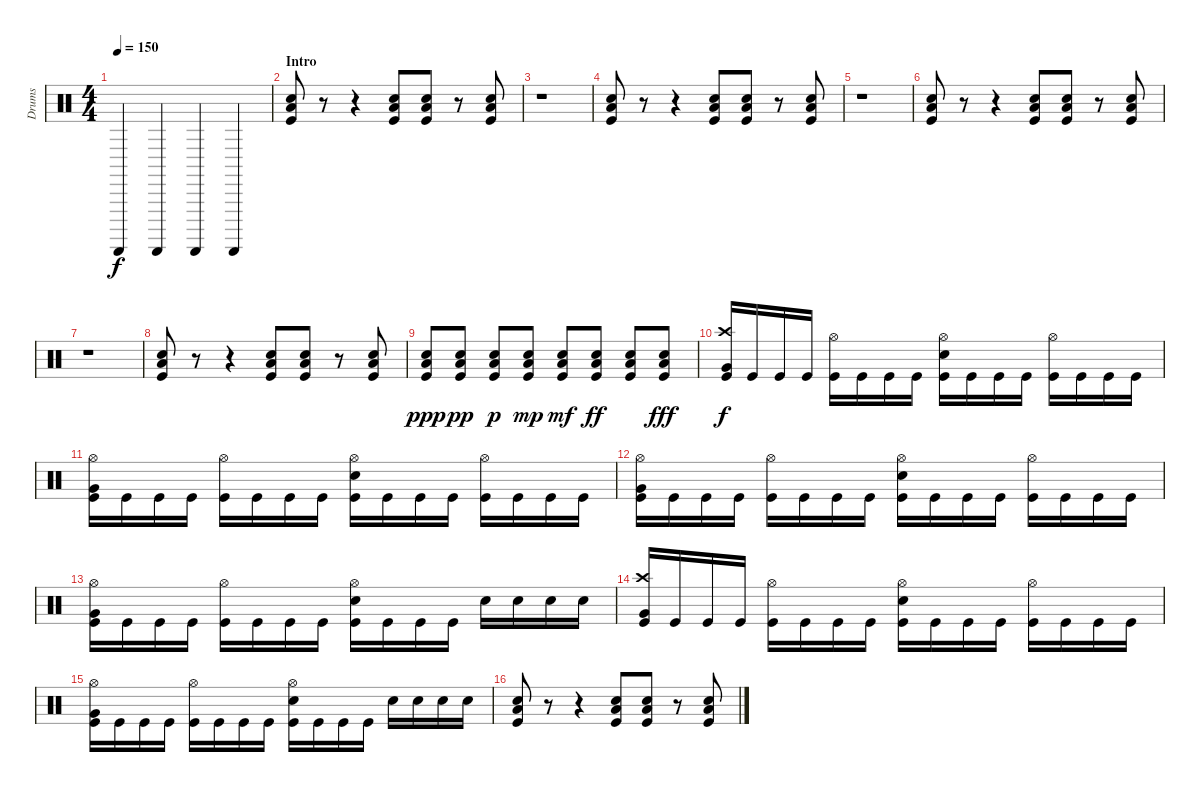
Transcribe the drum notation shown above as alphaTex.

\track ("Drums" "Drums") {instrument percussion}
\staff {score}
\articulation defaults
\ts (4 4)
\tempo 150
\clef neutral
\ks c "Guiro (scrap-return)".4{dy f} "Guiro (scrap-return)".4 "Guiro (scrap-return)".4 "Guiro (scrap-return)".4
|
\section ("" "Intro")
("Electric Snare (hit)" "Low Floor Tom (hit)" "Kick (hit)").8 r.8 r.4 ("Electric Snare (hit)" "Low Floor Tom (hit)" "Kick (hit)").8 ("Electric Snare (hit)" "Low Floor Tom (hit)" "Kick (hit)").8 r.8 ("Electric Snare (hit)" "Low Floor Tom (hit)" "Kick (hit)").8 |
r.1 |
("Electric Snare (hit)" "Low Floor Tom (hit)" "Kick (hit)").8 r.8 r.4 ("Electric Snare (hit)" "Low Floor Tom (hit)" "Kick (hit)").8 ("Electric Snare (hit)" "Low Floor Tom (hit)" "Kick (hit)").8 r.8 ("Electric Snare (hit)" "Low Floor Tom (hit)" "Kick (hit)").8 |
r.1 |
("Electric Snare (hit)" "Low Floor Tom (hit)" "Kick (hit)").8 r.8 r.4 ("Electric Snare (hit)" "Low Floor Tom (hit)" "Kick (hit)").8 ("Electric Snare (hit)" "Low Floor Tom (hit)" "Kick (hit)").8 r.8 ("Electric Snare (hit)" "Low Floor Tom (hit)" "Kick (hit)").8 |
r.1 |
("Electric Snare (hit)" "Low Floor Tom (hit)" "Kick (hit)").8 r.8 r.4 ("Electric Snare (hit)" "Low Floor Tom (hit)" "Kick (hit)").8 ("Electric Snare (hit)" "Low Floor Tom (hit)" "Kick (hit)").8 r.8 ("Electric Snare (hit)" "Low Floor Tom (hit)" "Kick (hit)").8 |
("Electric Snare (hit)" "Low Floor Tom (hit)" "Kick (hit)").8{dy ppp} ("Electric Snare (hit)" "Low Floor Tom (hit)" "Kick (hit)").8{dy pp} ("Electric Snare (hit)" "Low Floor Tom (hit)" "Kick (hit)").8{dy p} ("Electric Snare (hit)" "Low Floor Tom (hit)" "Kick (hit)").8{dy mp} ("Electric Snare (hit)" "Low Floor Tom (hit)" "Kick (hit)").8{dy mf} ("Electric Snare (hit)" "Low Floor Tom (hit)" "Kick (hit)").8{dy ff} ("Electric Snare (hit)" "Low Floor Tom (hit)" "Kick (hit)").8 ("Electric Snare (hit)" "Low Floor Tom (hit)" "Kick (hit)").8{dy fff} |
("Crash high (hit)" "Very Low Tom (hit)" "Kick (hit)").16{dy f} "Kick (hit)".16 "Kick (hit)".16 "Kick (hit)".16 ("Hi-Hat (open)" "Kick (hit)").16 "Kick (hit)".16 "Kick (hit)".16 "Kick (hit)".16 ("Hi-Hat (open)" "Electric Snare (hit)" "Kick (hit)").16 "Kick (hit)".16 "Kick (hit)".16 "Kick (hit)".16 ("Hi-Hat (open)" "Kick (hit)").16 "Kick (hit)".16 "Kick (hit)".16 "Kick (hit)".16 |
("Hi-Hat (open)" "Very Low Tom (hit)" "Kick (hit)").16 "Kick (hit)".16 "Kick (hit)".16 "Kick (hit)".16 ("Hi-Hat (open)" "Kick (hit)").16 "Kick (hit)".16 "Kick (hit)".16 "Kick (hit)".16 ("Hi-Hat (open)" "Electric Snare (hit)" "Kick (hit)").16 "Kick (hit)".16 "Kick (hit)".16 "Kick (hit)".16 ("Hi-Hat (open)" "Kick (hit)").16 "Kick (hit)".16 "Kick (hit)".16 "Kick (hit)".16 |
("Hi-Hat (open)" "Very Low Tom (hit)" "Kick (hit)").16 "Kick (hit)".16 "Kick (hit)".16 "Kick (hit)".16 ("Hi-Hat (open)" "Kick (hit)").16 "Kick (hit)".16 "Kick (hit)".16 "Kick (hit)".16 ("Hi-Hat (open)" "Electric Snare (hit)" "Kick (hit)").16 "Kick (hit)".16 "Kick (hit)".16 "Kick (hit)".16 ("Hi-Hat (open)" "Kick (hit)").16 "Kick (hit)".16 "Kick (hit)".16 "Kick (hit)".16 |
("Hi-Hat (open)" "Very Low Tom (hit)" "Kick (hit)").16 "Kick (hit)".16 "Kick (hit)".16 "Kick (hit)".16 ("Hi-Hat (open)" "Kick (hit)").16 "Kick (hit)".16 "Kick (hit)".16 "Kick (hit)".16 ("Hi-Hat (open)" "Electric Snare (hit)" "Kick (hit)").16 "Kick (hit)".16 "Kick (hit)".16 "Kick (hit)".16 "Electric Snare (hit)".16 "Electric Snare (hit)".16 "Electric Snare (hit)".16 "Electric Snare (hit)".16 |
("Crash high (hit)" "Very Low Tom (hit)" "Kick (hit)").16 "Kick (hit)".16 "Kick (hit)".16 "Kick (hit)".16 ("Hi-Hat (open)" "Kick (hit)").16 "Kick (hit)".16 "Kick (hit)".16 "Kick (hit)".16 ("Hi-Hat (open)" "Electric Snare (hit)" "Kick (hit)").16 "Kick (hit)".16 "Kick (hit)".16 "Kick (hit)".16 ("Hi-Hat (open)" "Kick (hit)").16 "Kick (hit)".16 "Kick (hit)".16 "Kick (hit)".16 |
("Hi-Hat (open)" "Very Low Tom (hit)" "Kick (hit)").16 "Kick (hit)".16 "Kick (hit)".16 "Kick (hit)".16 ("Hi-Hat (open)" "Kick (hit)").16 "Kick (hit)".16 "Kick (hit)".16 "Kick (hit)".16 ("Hi-Hat (open)" "Electric Snare (hit)" "Kick (hit)").16 "Kick (hit)".16 "Kick (hit)".16 "Kick (hit)".16 "Electric Snare (hit)".16 "Electric Snare (hit)".16 "Electric Snare (hit)".16 "Electric Snare (hit)".16 |
("Electric Snare (hit)" "Low Floor Tom (hit)" "Kick (hit)").8 r.8 r.4 ("Electric Snare (hit)" "Low Floor Tom (hit)" "Kick (hit)").8 ("Electric Snare (hit)" "Low Floor Tom (hit)" "Kick (hit)").8 r.8 ("Electric Snare (hit)" "Low Floor Tom (hit)" "Kick (hit)").8
